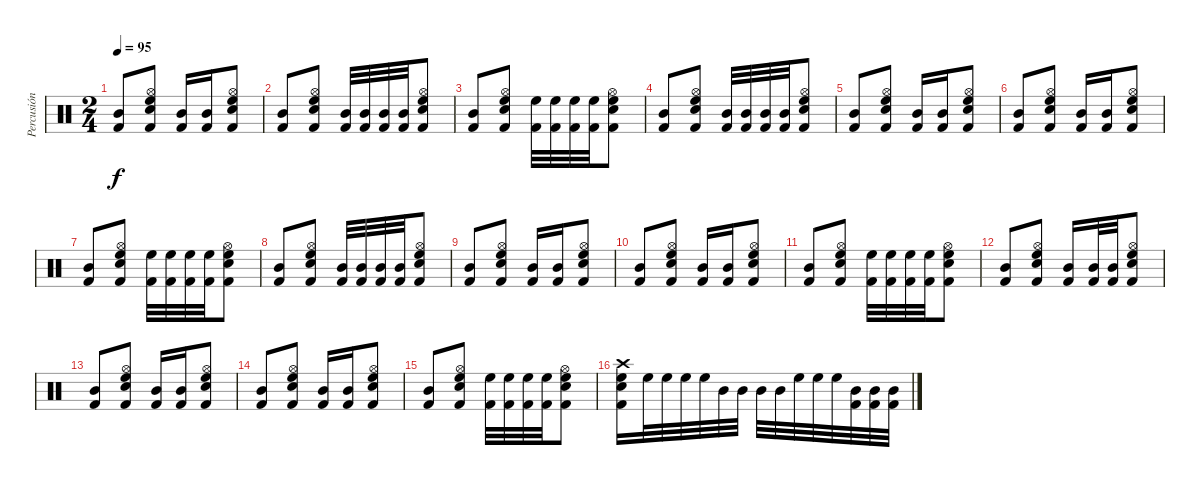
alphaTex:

\track ("Percusión" "Percusión") {instrument percussion}
\staff {score}
\articulation defaults
\ts (2 4)
\tempo 95
\clef neutral
\ks c
("Mid Tom (hit)" "Kick (hit) 2").8{dy f} ("Hi-Hat (open)" "High Floor Tom (hit)" "Snare (hit) 2" "Kick (hit) 2").8 ("Mid Tom (hit)" "Kick (hit) 2").16 ("Mid Tom (hit)" "Kick (hit) 2").16 ("Hi-Hat (open)" "High Floor Tom (hit)" "Snare (hit) 2" "Kick (hit) 2").8 |
("Mid Tom (hit)" "Kick (hit) 2").8 ("Hi-Hat (open)" "High Floor Tom (hit)" "Snare (hit) 2" "Kick (hit) 2").8 ("Mid Tom (hit)" "Kick (hit) 2").32 ("Mid Tom (hit)" "Kick (hit) 2").32 ("Mid Tom (hit)" "Kick (hit) 2").32 ("Mid Tom (hit)" "Kick (hit) 2").32 ("Hi-Hat (open)" "High Floor Tom (hit)" "Snare (hit) 2" "Kick (hit) 2").8 |
("Mid Tom (hit)" "Kick (hit) 2").8 ("Hi-Hat (open)" "High Floor Tom (hit)" "Snare (hit) 2" "Kick (hit) 2").8 ("High Floor Tom (hit)" "Kick (hit) 2").32 ("High Floor Tom (hit)" "Kick (hit) 2").32 ("High Floor Tom (hit)" "Kick (hit) 2").32 ("High Floor Tom (hit)" "Kick (hit) 2").32 ("Hi-Hat (open)" "High Floor Tom (hit)" "Snare (hit) 2" "Kick (hit) 2").8 |
("Mid Tom (hit)" "Kick (hit) 2").8 ("Hi-Hat (open)" "High Floor Tom (hit)" "Snare (hit) 2" "Kick (hit) 2").8 ("Mid Tom (hit)" "Kick (hit) 2").32 ("Mid Tom (hit)" "Kick (hit) 2").32 ("Mid Tom (hit)" "Kick (hit) 2").32 ("Mid Tom (hit)" "Kick (hit) 2").32 ("Hi-Hat (open)" "High Floor Tom (hit)" "Snare (hit) 2" "Kick (hit) 2").8 |
("Mid Tom (hit)" "Kick (hit) 2").8 ("Hi-Hat (open)" "High Floor Tom (hit)" "Snare (hit) 2" "Kick (hit) 2").8 ("Mid Tom (hit)" "Kick (hit) 2").16 ("Mid Tom (hit)" "Kick (hit) 2").16 ("Hi-Hat (open)" "High Floor Tom (hit)" "Snare (hit) 2" "Kick (hit) 2").8 |
("Mid Tom (hit)" "Kick (hit) 2").8 ("Hi-Hat (open)" "High Floor Tom (hit)" "Snare (hit) 2" "Kick (hit) 2").8 ("Mid Tom (hit)" "Kick (hit) 2").16 ("Mid Tom (hit)" "Kick (hit) 2").16 ("Hi-Hat (open)" "High Floor Tom (hit)" "Snare (hit) 2" "Kick (hit) 2").8 |
("Mid Tom (hit)" "Kick (hit) 2").8 ("Hi-Hat (open)" "High Floor Tom (hit)" "Snare (hit) 2" "Kick (hit) 2").8 ("High Floor Tom (hit)" "Kick (hit) 2").32 ("High Floor Tom (hit)" "Kick (hit) 2").32 ("High Floor Tom (hit)" "Kick (hit) 2").32 ("High Floor Tom (hit)" "Kick (hit) 2").32 ("Hi-Hat (open)" "High Floor Tom (hit)" "Snare (hit) 2" "Kick (hit) 2").8 |
("Mid Tom (hit)" "Kick (hit) 2").8 ("Hi-Hat (open)" "High Floor Tom (hit)" "Snare (hit) 2" "Kick (hit) 2").8 ("Mid Tom (hit)" "Kick (hit) 2").32 ("Mid Tom (hit)" "Kick (hit) 2").32 ("Mid Tom (hit)" "Kick (hit) 2").32 ("Mid Tom (hit)" "Kick (hit) 2").32 ("Hi-Hat (open)" "High Floor Tom (hit)" "Snare (hit) 2" "Kick (hit) 2").8 |
("Mid Tom (hit)" "Kick (hit) 2").8 ("Hi-Hat (open)" "High Floor Tom (hit)" "Snare (hit) 2" "Kick (hit) 2").8 ("Mid Tom (hit)" "Kick (hit) 2").16 ("Mid Tom (hit)" "Kick (hit) 2").16 ("Hi-Hat (open)" "High Floor Tom (hit)" "Snare (hit) 2" "Kick (hit) 2").8 |
("Mid Tom (hit)" "Kick (hit) 2").8 ("Hi-Hat (open)" "High Floor Tom (hit)" "Snare (hit) 2" "Kick (hit) 2").8 ("Mid Tom (hit)" "Kick (hit) 2").16 ("Mid Tom (hit)" "Kick (hit) 2").16 ("Hi-Hat (open)" "High Floor Tom (hit)" "Snare (hit) 2" "Kick (hit) 2").8 |
("Mid Tom (hit)" "Kick (hit) 2").8 ("Hi-Hat (open)" "High Floor Tom (hit)" "Snare (hit) 2" "Kick (hit) 2").8 ("High Floor Tom (hit)" "Kick (hit) 2").32 ("High Floor Tom (hit)" "Kick (hit) 2").32 ("High Floor Tom (hit)" "Kick (hit) 2").32 ("High Floor Tom (hit)" "Kick (hit) 2").32 ("Hi-Hat (open)" "High Floor Tom (hit)" "Snare (hit) 2" "Kick (hit) 2").8 |
("Mid Tom (hit)" "Kick (hit) 2").8 ("Hi-Hat (open)" "High Floor Tom (hit)" "Snare (hit) 2" "Kick (hit) 2").8 ("Mid Tom (hit)" "Kick (hit) 2").16 ("Mid Tom (hit)" "Kick (hit) 2").32 ("Mid Tom (hit)" "Kick (hit) 2").32 ("Hi-Hat (open)" "High Floor Tom (hit)" "Snare (hit) 2" "Kick (hit) 2").8 |
("Mid Tom (hit)" "Kick (hit) 2").8 ("Hi-Hat (open)" "High Floor Tom (hit)" "Snare (hit) 2" "Kick (hit) 2").8 ("Mid Tom (hit)" "Kick (hit) 2").16 ("Mid Tom (hit)" "Kick (hit) 2").16 ("Hi-Hat (open)" "High Floor Tom (hit)" "Snare (hit) 2" "Kick (hit) 2").8 |
("Mid Tom (hit)" "Kick (hit) 2").8 ("Hi-Hat (open)" "High Floor Tom (hit)" "Snare (hit) 2" "Kick (hit) 2").8 ("Mid Tom (hit)" "Kick (hit) 2").16 ("Mid Tom (hit)" "Kick (hit) 2").16 ("Hi-Hat (open)" "High Floor Tom (hit)" "Snare (hit) 2" "Kick (hit) 2").8 |
("Mid Tom (hit)" "Kick (hit) 2").8 ("Hi-Hat (open)" "High Floor Tom (hit)" "Snare (hit) 2" "Kick (hit) 2").8 ("High Floor Tom (hit)" "Kick (hit) 2").32 ("High Floor Tom (hit)" "Kick (hit) 2").32 ("High Floor Tom (hit)" "Kick (hit) 2").32 ("High Floor Tom (hit)" "Kick (hit) 2").32 ("Hi-Hat (open)" "High Floor Tom (hit)" "Snare (hit) 2" "Kick (hit) 2").8 |
("Crash high (hit)" "High Floor Tom (hit)" "Snare (hit) 2" "Kick (hit) 2").16 "High Floor Tom (hit)".32 "High Floor Tom (hit)".32 "High Floor Tom (hit)".32 "High Floor Tom (hit)".32 "Mid Tom (hit)".32 "Mid Tom (hit)".32 "Mid Tom (hit)".32 "Mid Tom (hit)".32 "High Floor Tom (hit)".32 "High Floor Tom (hit)".32 "High Floor Tom (hit)".32 ("Mid Tom (hit)" "Kick (hit) 2").32 ("Mid Tom (hit)" "Kick (hit) 2").32 ("Mid Tom (hit)" "Kick (hit) 2").32
